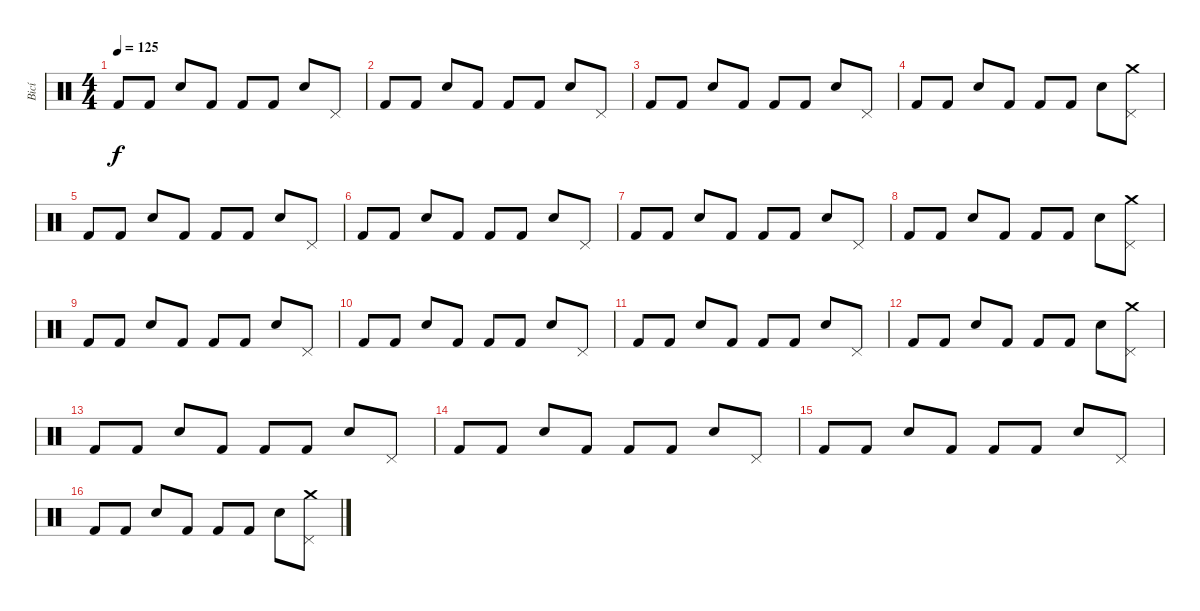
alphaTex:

\track ("Bicí" "Bicí") {instrument percussion}
\staff {score}
\articulation defaults
\ts (4 4)
\tempo 125
\clef neutral
\ks c "Kick (hit) 2".8{dy f} "Kick (hit) 2".8 "Snare (hit) 2".8 "Kick (hit) 2".8 "Kick (hit) 2".8 "Kick (hit) 2".8 "Snare (hit) 2".8 "Pedal Hi-Hat (hit)".8
|
"Kick (hit) 2".8 "Kick (hit) 2".8 "Snare (hit) 2".8 "Kick (hit) 2".8 "Kick (hit) 2".8 "Kick (hit) 2".8 "Snare (hit) 2".8 "Pedal Hi-Hat (hit)".8 |
"Kick (hit) 2".8 "Kick (hit) 2".8 "Snare (hit) 2".8 "Kick (hit) 2".8 "Kick (hit) 2".8 "Kick (hit) 2".8 "Snare (hit) 2".8 "Pedal Hi-Hat (hit)".8 |
"Kick (hit) 2".8 "Kick (hit) 2".8 "Snare (hit) 2".8 "Kick (hit) 2".8 "Kick (hit) 2".8 "Kick (hit) 2".8 "Snare (hit) 2".8 ("Pedal Hi-Hat (hit)" "Crash medium (hit)").8 |
"Kick (hit) 2".8 "Kick (hit) 2".8 "Snare (hit) 2".8 "Kick (hit) 2".8 "Kick (hit) 2".8 "Kick (hit) 2".8 "Snare (hit) 2".8 "Pedal Hi-Hat (hit)".8 |
"Kick (hit) 2".8 "Kick (hit) 2".8 "Snare (hit) 2".8 "Kick (hit) 2".8 "Kick (hit) 2".8 "Kick (hit) 2".8 "Snare (hit) 2".8 "Pedal Hi-Hat (hit)".8 |
"Kick (hit) 2".8 "Kick (hit) 2".8 "Snare (hit) 2".8 "Kick (hit) 2".8 "Kick (hit) 2".8 "Kick (hit) 2".8 "Snare (hit) 2".8 "Pedal Hi-Hat (hit)".8 |
"Kick (hit) 2".8 "Kick (hit) 2".8 "Snare (hit) 2".8 "Kick (hit) 2".8 "Kick (hit) 2".8 "Kick (hit) 2".8 "Snare (hit) 2".8 ("Pedal Hi-Hat (hit)" "Crash medium (hit)").8 |
"Kick (hit) 2".8 "Kick (hit) 2".8 "Snare (hit) 2".8 "Kick (hit) 2".8 "Kick (hit) 2".8 "Kick (hit) 2".8 "Snare (hit) 2".8 "Pedal Hi-Hat (hit)".8 |
"Kick (hit) 2".8 "Kick (hit) 2".8 "Snare (hit) 2".8 "Kick (hit) 2".8 "Kick (hit) 2".8 "Kick (hit) 2".8 "Snare (hit) 2".8 "Pedal Hi-Hat (hit)".8 |
"Kick (hit) 2".8 "Kick (hit) 2".8 "Snare (hit) 2".8 "Kick (hit) 2".8 "Kick (hit) 2".8 "Kick (hit) 2".8 "Snare (hit) 2".8 "Pedal Hi-Hat (hit)".8 |
"Kick (hit) 2".8 "Kick (hit) 2".8 "Snare (hit) 2".8 "Kick (hit) 2".8 "Kick (hit) 2".8 "Kick (hit) 2".8 "Snare (hit) 2".8 ("Pedal Hi-Hat (hit)" "Crash medium (hit)").8 |
"Kick (hit) 2".8 "Kick (hit) 2".8 "Snare (hit) 2".8 "Kick (hit) 2".8 "Kick (hit) 2".8 "Kick (hit) 2".8 "Snare (hit) 2".8 "Pedal Hi-Hat (hit)".8 |
"Kick (hit) 2".8 "Kick (hit) 2".8 "Snare (hit) 2".8 "Kick (hit) 2".8 "Kick (hit) 2".8 "Kick (hit) 2".8 "Snare (hit) 2".8 "Pedal Hi-Hat (hit)".8 |
"Kick (hit) 2".8 "Kick (hit) 2".8 "Snare (hit) 2".8 "Kick (hit) 2".8 "Kick (hit) 2".8 "Kick (hit) 2".8 "Snare (hit) 2".8 "Pedal Hi-Hat (hit)".8 |
"Kick (hit) 2".8 "Kick (hit) 2".8 "Snare (hit) 2".8 "Kick (hit) 2".8 "Kick (hit) 2".8 "Kick (hit) 2".8 "Snare (hit) 2".8 ("Pedal Hi-Hat (hit)" "Crash medium (hit)").8
